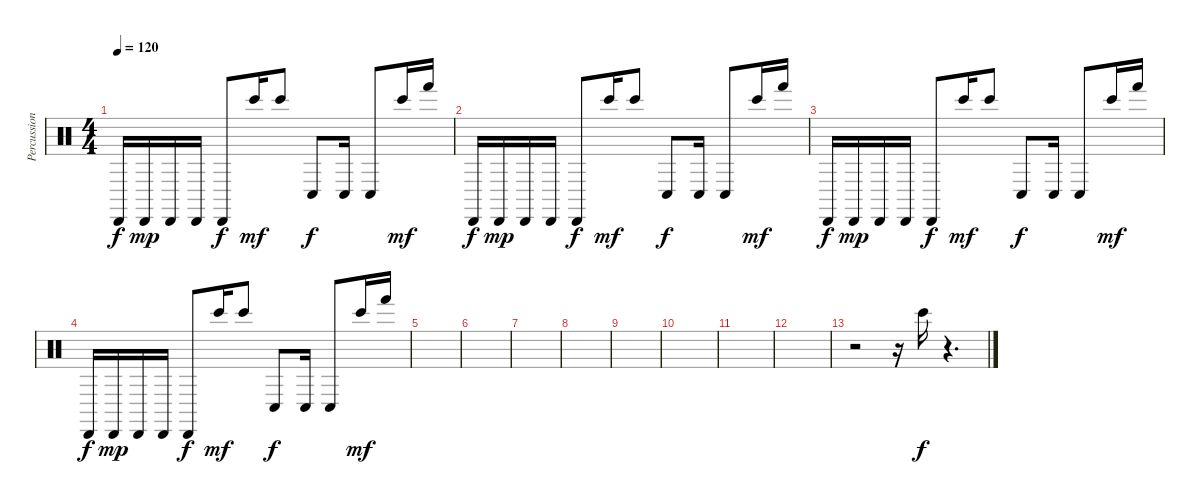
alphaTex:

\track ("Percussions" "Percussion") {instrument percussion}
\staff {score}
\articulation defaults
\ts (4 4)
\tempo 120
\clef neutral
\ks c "Cabasa (hit)".16{dy f} "Cabasa (hit)".16{dy mp} "Cabasa (hit)".16 "Cabasa (hit)".16 "Cabasa (hit)".8{dy f} "Bongo High (hit)".16{dy mf} "Bongo High (hit)".8 "Conga low (hit)".8{dy f} "Conga low (hit)".16 "Conga low (hit)".8 "Bongo High (hit)".16{dy mf} "Hand (hit)".16
|
"Cabasa (hit)".16{dy f} "Cabasa (hit)".16{dy mp} "Cabasa (hit)".16 "Cabasa (hit)".16 "Cabasa (hit)".8{dy f} "Bongo High (hit)".16{dy mf} "Bongo High (hit)".8 "Conga low (hit)".8{dy f} "Conga low (hit)".16 "Conga low (hit)".8 "Bongo High (hit)".16{dy mf} "Hand (hit)".16 |
"Cabasa (hit)".16{dy f} "Cabasa (hit)".16{dy mp} "Cabasa (hit)".16 "Cabasa (hit)".16 "Cabasa (hit)".8{dy f} "Bongo High (hit)".16{dy mf} "Bongo High (hit)".8 "Conga low (hit)".8{dy f} "Conga low (hit)".16 "Conga low (hit)".8 "Bongo High (hit)".16{dy mf} "Hand (hit)".16 |
"Cabasa (hit)".16{dy f} "Cabasa (hit)".16{dy mp} "Cabasa (hit)".16 "Cabasa (hit)".16 "Cabasa (hit)".8{dy f} "Bongo High (hit)".16{dy mf} "Bongo High (hit)".8 "Conga low (hit)".8{dy f} "Conga low (hit)".16 "Conga low (hit)".8 "Bongo High (hit)".16{dy mf} "Hand (hit)".16 |
|
|
|
|
|
|
|
|
r.2 r.16 "Bongo High (hit)".16{dy f} r.4{d}
